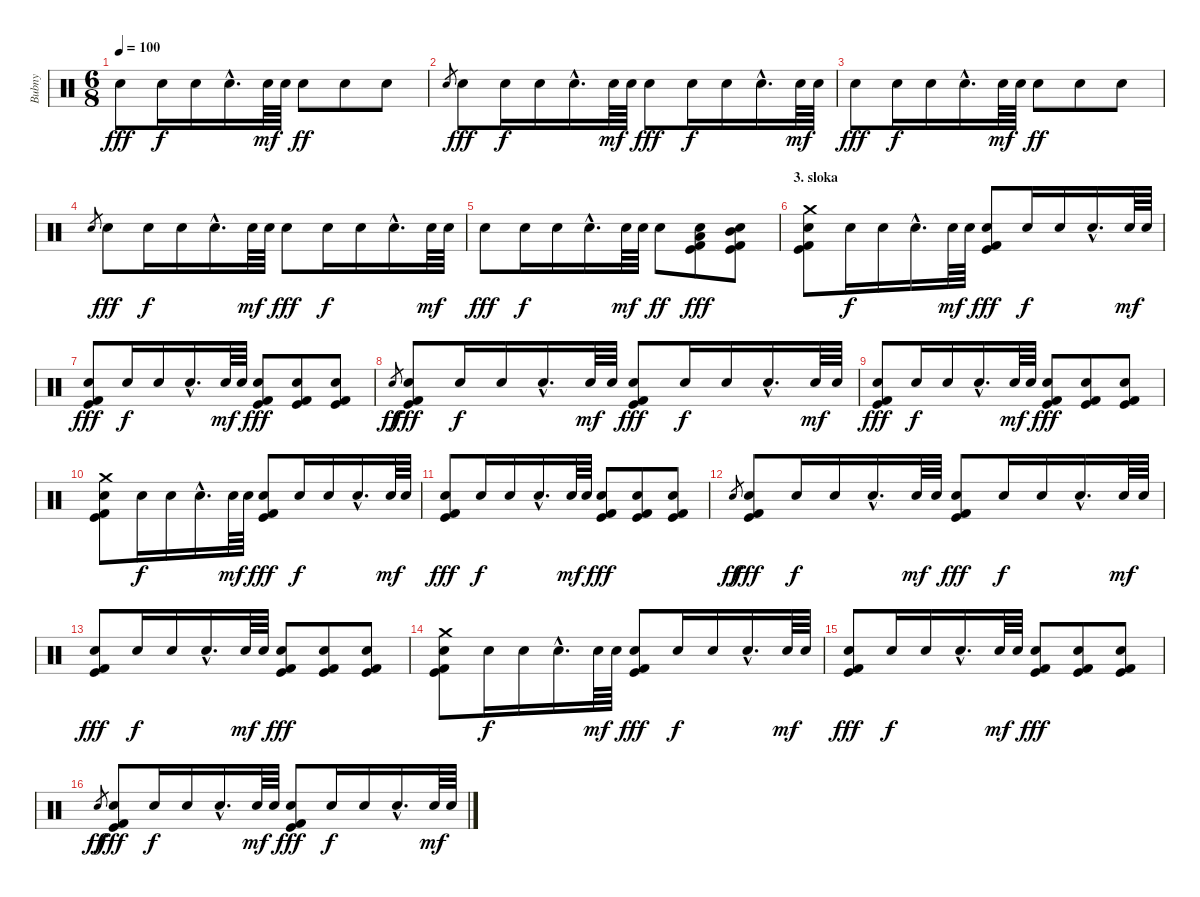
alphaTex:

\track ("Bubny" "Bubny") {instrument percussion}
\staff {score}
\articulation defaults
\ts (6 8)
\tempo 100
\clef neutral
\ks c "Electric Snare (hit)".8{dy fff} "Electric Snare (hit)".16{dy f} "Electric Snare (hit)".16 "Electric Snare (hit)"{hac}.16{d} "Electric Snare (hit)".64{dy mf} "Electric Snare (hit)".64 "Electric Snare (hit)".8{dy ff} "Electric Snare (hit)".8 "Electric Snare (hit)".8
|
"Electric Snare (hit)".8{gr} "Electric Snare (hit)".8{dy fff} "Electric Snare (hit)".16{dy f} "Electric Snare (hit)".16 "Electric Snare (hit)"{hac}.16{d} "Electric Snare (hit)".64{dy mf} "Electric Snare (hit)".64 "Electric Snare (hit)".8{dy fff} "Electric Snare (hit)".16{dy f} "Electric Snare (hit)".16 "Electric Snare (hit)"{hac}.16{d} "Electric Snare (hit)".64{dy mf} "Electric Snare (hit)".64 |
"Electric Snare (hit)".8{dy fff} "Electric Snare (hit)".16{dy f} "Electric Snare (hit)".16 "Electric Snare (hit)"{hac}.16{d} "Electric Snare (hit)".64{dy mf} "Electric Snare (hit)".64 "Electric Snare (hit)".8{dy ff} "Electric Snare (hit)".8 "Electric Snare (hit)".8 |
"Electric Snare (hit)".8{gr} "Electric Snare (hit)".8{dy fff} "Electric Snare (hit)".16{dy f} "Electric Snare (hit)".16 "Electric Snare (hit)"{hac}.16{d} "Electric Snare (hit)".64{dy mf} "Electric Snare (hit)".64 "Electric Snare (hit)".8{dy fff} "Electric Snare (hit)".16{dy f} "Electric Snare (hit)".16 "Electric Snare (hit)"{hac}.16{d} "Electric Snare (hit)".64{dy mf} "Electric Snare (hit)".64 |
"Electric Snare (hit)".8{dy fff} "Electric Snare (hit)".16{dy f} "Electric Snare (hit)".16 "Electric Snare (hit)"{hac}.16{d} "Electric Snare (hit)".64{dy mf} "Electric Snare (hit)".64 "Electric Snare (hit)".8{dy ff} ("Electric Snare (hit)" "Kick (hit) 2" "Kick (hit)" "Low Tom (hit)").8{dy fff volume 14} ("Electric Snare (hit)" "Kick (hit) 2" "Kick (hit)" "Mid Tom (hit)").8 |
\section ("" "3. sloka")
("Electric Snare (hit)" "Crash medium (hit)" "Kick (hit)" "Kick (hit) 2").8 "Electric Snare (hit)".16{dy f} "Electric Snare (hit)".16 "Electric Snare (hit)"{hac}.16{d} "Electric Snare (hit)".64{dy mf} "Electric Snare (hit)".64 ("Electric Snare (hit)" "Kick (hit)" "Kick (hit) 2").8{dy fff} "Electric Snare (hit)".16{dy f} "Electric Snare (hit)".16 "Electric Snare (hit)"{hac}.16{d} "Electric Snare (hit)".64{dy mf} "Electric Snare (hit)".64 |
("Electric Snare (hit)" "Kick (hit)" "Kick (hit) 2").8{dy fff} "Electric Snare (hit)".16{dy f} "Electric Snare (hit)".16 "Electric Snare (hit)"{hac}.16{d} "Electric Snare (hit)".64{dy mf} "Electric Snare (hit)".64 ("Electric Snare (hit)" "Kick (hit)" "Kick (hit) 2").8{dy fff} ("Electric Snare (hit)" "Kick (hit)" "Kick (hit) 2").8 ("Electric Snare (hit)" "Kick (hit)" "Kick (hit) 2").8 |
"Electric Snare (hit)".8{gr dy ff} ("Electric Snare (hit)" "Kick (hit)" "Kick (hit) 2").8{dy fff} "Electric Snare (hit)".16{dy f} "Electric Snare (hit)".16 "Electric Snare (hit)"{hac}.16{d} "Electric Snare (hit)".64{dy mf} "Electric Snare (hit)".64 ("Electric Snare (hit)" "Kick (hit)" "Kick (hit) 2").8{dy fff} "Electric Snare (hit)".16{dy f} "Electric Snare (hit)".16 "Electric Snare (hit)"{hac}.16{d} "Electric Snare (hit)".64{dy mf} "Electric Snare (hit)".64 |
("Electric Snare (hit)" "Kick (hit)" "Kick (hit) 2").8{dy fff} "Electric Snare (hit)".16{dy f} "Electric Snare (hit)".16 "Electric Snare (hit)"{hac}.16{d} "Electric Snare (hit)".64{dy mf} "Electric Snare (hit)".64 ("Electric Snare (hit)" "Kick (hit)" "Kick (hit) 2").8{dy fff} ("Electric Snare (hit)" "Kick (hit)" "Kick (hit) 2").8 ("Electric Snare (hit)" "Kick (hit)" "Kick (hit) 2").8 |
("Electric Snare (hit)" "Crash medium (hit)" "Kick (hit)" "Kick (hit) 2").8 "Electric Snare (hit)".16{dy f} "Electric Snare (hit)".16 "Electric Snare (hit)"{hac}.16{d} "Electric Snare (hit)".64{dy mf} "Electric Snare (hit)".64 ("Electric Snare (hit)" "Kick (hit)" "Kick (hit) 2").8{dy fff} "Electric Snare (hit)".16{dy f} "Electric Snare (hit)".16 "Electric Snare (hit)"{hac}.16{d} "Electric Snare (hit)".64{dy mf} "Electric Snare (hit)".64 |
("Electric Snare (hit)" "Kick (hit)" "Kick (hit) 2").8{dy fff} "Electric Snare (hit)".16{dy f} "Electric Snare (hit)".16 "Electric Snare (hit)"{hac}.16{d} "Electric Snare (hit)".64{dy mf} "Electric Snare (hit)".64 ("Electric Snare (hit)" "Kick (hit)" "Kick (hit) 2").8{dy fff} ("Electric Snare (hit)" "Kick (hit)" "Kick (hit) 2").8 ("Electric Snare (hit)" "Kick (hit)" "Kick (hit) 2").8 |
"Electric Snare (hit)".8{gr dy ff} ("Electric Snare (hit)" "Kick (hit)" "Kick (hit) 2").8{dy fff} "Electric Snare (hit)".16{dy f} "Electric Snare (hit)".16 "Electric Snare (hit)"{hac}.16{d} "Electric Snare (hit)".64{dy mf} "Electric Snare (hit)".64 ("Electric Snare (hit)" "Kick (hit)" "Kick (hit) 2").8{dy fff} "Electric Snare (hit)".16{dy f} "Electric Snare (hit)".16 "Electric Snare (hit)"{hac}.16{d} "Electric Snare (hit)".64{dy mf} "Electric Snare (hit)".64 |
("Electric Snare (hit)" "Kick (hit)" "Kick (hit) 2").8{dy fff} "Electric Snare (hit)".16{dy f} "Electric Snare (hit)".16 "Electric Snare (hit)"{hac}.16{d} "Electric Snare (hit)".64{dy mf} "Electric Snare (hit)".64 ("Electric Snare (hit)" "Kick (hit)" "Kick (hit) 2").8{dy fff} ("Electric Snare (hit)" "Kick (hit)" "Kick (hit) 2").8 ("Electric Snare (hit)" "Kick (hit)" "Kick (hit) 2").8 |
("Electric Snare (hit)" "Crash medium (hit)" "Kick (hit)" "Kick (hit) 2").8 "Electric Snare (hit)".16{dy f} "Electric Snare (hit)".16 "Electric Snare (hit)"{hac}.16{d} "Electric Snare (hit)".64{dy mf} "Electric Snare (hit)".64 ("Electric Snare (hit)" "Kick (hit)" "Kick (hit) 2").8{dy fff} "Electric Snare (hit)".16{dy f} "Electric Snare (hit)".16 "Electric Snare (hit)"{hac}.16{d} "Electric Snare (hit)".64{dy mf} "Electric Snare (hit)".64 |
("Electric Snare (hit)" "Kick (hit)" "Kick (hit) 2").8{dy fff} "Electric Snare (hit)".16{dy f} "Electric Snare (hit)".16 "Electric Snare (hit)"{hac}.16{d} "Electric Snare (hit)".64{dy mf} "Electric Snare (hit)".64 ("Electric Snare (hit)" "Kick (hit)" "Kick (hit) 2").8{dy fff} ("Electric Snare (hit)" "Kick (hit)" "Kick (hit) 2").8 ("Electric Snare (hit)" "Kick (hit)" "Kick (hit) 2").8 |
"Electric Snare (hit)".8{gr dy ff} ("Electric Snare (hit)" "Kick (hit)" "Kick (hit) 2").8{dy fff} "Electric Snare (hit)".16{dy f} "Electric Snare (hit)".16 "Electric Snare (hit)"{hac}.16{d} "Electric Snare (hit)".64{dy mf} "Electric Snare (hit)".64 ("Electric Snare (hit)" "Kick (hit)" "Kick (hit) 2").8{dy fff} "Electric Snare (hit)".16{dy f} "Electric Snare (hit)".16 "Electric Snare (hit)"{hac}.16{d} "Electric Snare (hit)".64{dy mf} "Electric Snare (hit)".64
